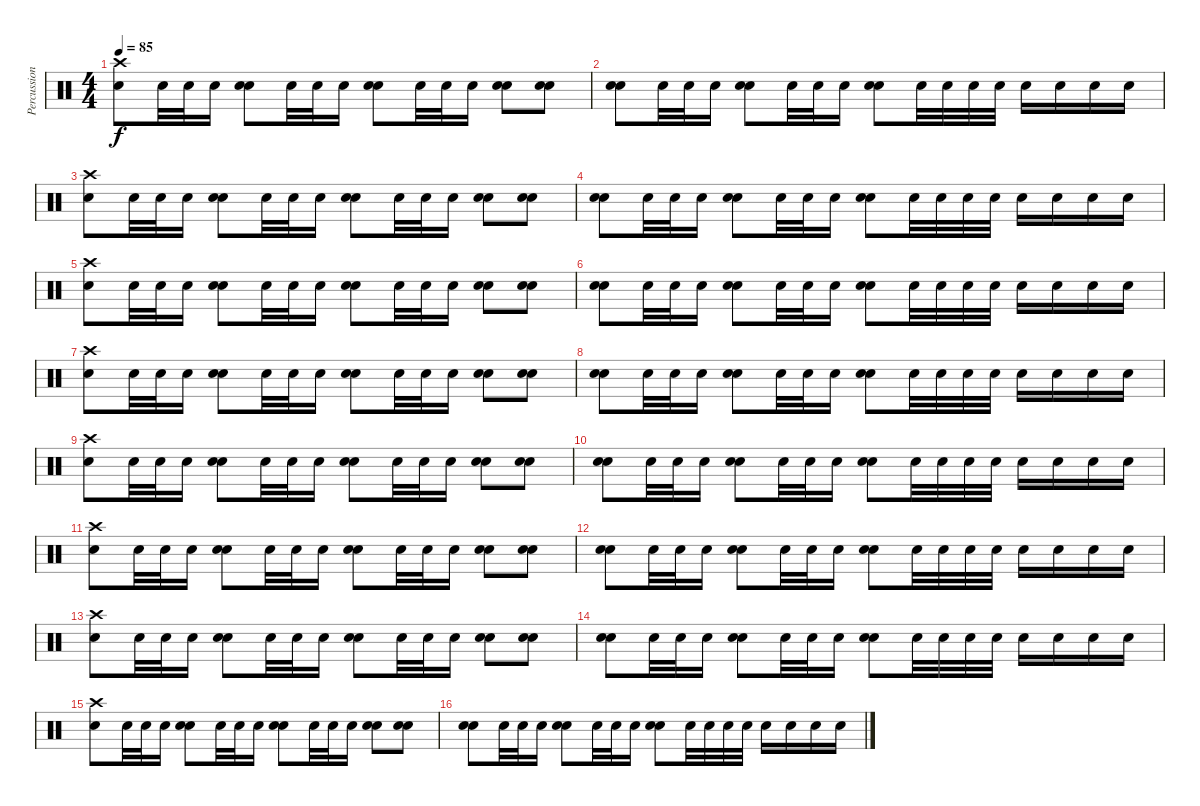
\track ("Percussion" "Percussion") {instrument percussion}
\staff {score}
\articulation defaults
\ts (4 4)
\tempo 85
\clef neutral
\ks c
("Crash high (hit)" "Electric Snare (hit)").8{dy f} "Electric Snare (hit)".32 "Electric Snare (hit)".32 "Electric Snare (hit)".16 ("Electric Snare (hit)" "Electric Snare (hit)").8 "Electric Snare (hit)".32 "Electric Snare (hit)".32 "Electric Snare (hit)".16 ("Electric Snare (hit)" "Electric Snare (hit)").8 "Electric Snare (hit)".32 "Electric Snare (hit)".32 "Electric Snare (hit)".16 ("Electric Snare (hit)" "Electric Snare (hit)").8 ("Electric Snare (hit)" "Electric Snare (hit)").8 |
("Electric Snare (hit)" "Electric Snare (hit)").8 "Electric Snare (hit)".32 "Electric Snare (hit)".32 "Electric Snare (hit)".16 ("Electric Snare (hit)" "Electric Snare (hit)").8 "Electric Snare (hit)".32 "Electric Snare (hit)".32 "Electric Snare (hit)".16 ("Electric Snare (hit)" "Electric Snare (hit)").8 "Electric Snare (hit)".32 "Electric Snare (hit)".32 "Electric Snare (hit)".32 "Electric Snare (hit)".32 "Electric Snare (hit)".16 "Electric Snare (hit)".16 "Electric Snare (hit)".16 "Electric Snare (hit)".16 |
("Crash high (hit)" "Electric Snare (hit)").8 "Electric Snare (hit)".32 "Electric Snare (hit)".32 "Electric Snare (hit)".16 ("Electric Snare (hit)" "Electric Snare (hit)").8 "Electric Snare (hit)".32 "Electric Snare (hit)".32 "Electric Snare (hit)".16 ("Electric Snare (hit)" "Electric Snare (hit)").8 "Electric Snare (hit)".32 "Electric Snare (hit)".32 "Electric Snare (hit)".16 ("Electric Snare (hit)" "Electric Snare (hit)").8 ("Electric Snare (hit)" "Electric Snare (hit)").8 |
("Electric Snare (hit)" "Electric Snare (hit)").8 "Electric Snare (hit)".32 "Electric Snare (hit)".32 "Electric Snare (hit)".16 ("Electric Snare (hit)" "Electric Snare (hit)").8 "Electric Snare (hit)".32 "Electric Snare (hit)".32 "Electric Snare (hit)".16 ("Electric Snare (hit)" "Electric Snare (hit)").8 "Electric Snare (hit)".32 "Electric Snare (hit)".32 "Electric Snare (hit)".32 "Electric Snare (hit)".32 "Electric Snare (hit)".16 "Electric Snare (hit)".16 "Electric Snare (hit)".16 "Electric Snare (hit)".16 |
("Crash high (hit)" "Electric Snare (hit)").8 "Electric Snare (hit)".32 "Electric Snare (hit)".32 "Electric Snare (hit)".16 ("Electric Snare (hit)" "Electric Snare (hit)").8 "Electric Snare (hit)".32 "Electric Snare (hit)".32 "Electric Snare (hit)".16 ("Electric Snare (hit)" "Electric Snare (hit)").8 "Electric Snare (hit)".32 "Electric Snare (hit)".32 "Electric Snare (hit)".16 ("Electric Snare (hit)" "Electric Snare (hit)").8 ("Electric Snare (hit)" "Electric Snare (hit)").8 |
("Electric Snare (hit)" "Electric Snare (hit)").8 "Electric Snare (hit)".32 "Electric Snare (hit)".32 "Electric Snare (hit)".16 ("Electric Snare (hit)" "Electric Snare (hit)").8 "Electric Snare (hit)".32 "Electric Snare (hit)".32 "Electric Snare (hit)".16 ("Electric Snare (hit)" "Electric Snare (hit)").8 "Electric Snare (hit)".32 "Electric Snare (hit)".32 "Electric Snare (hit)".32 "Electric Snare (hit)".32 "Electric Snare (hit)".16 "Electric Snare (hit)".16 "Electric Snare (hit)".16 "Electric Snare (hit)".16 |
("Crash high (hit)" "Electric Snare (hit)").8 "Electric Snare (hit)".32 "Electric Snare (hit)".32 "Electric Snare (hit)".16 ("Electric Snare (hit)" "Electric Snare (hit)").8 "Electric Snare (hit)".32 "Electric Snare (hit)".32 "Electric Snare (hit)".16 ("Electric Snare (hit)" "Electric Snare (hit)").8 "Electric Snare (hit)".32 "Electric Snare (hit)".32 "Electric Snare (hit)".16 ("Electric Snare (hit)" "Electric Snare (hit)").8 ("Electric Snare (hit)" "Electric Snare (hit)").8 |
("Electric Snare (hit)" "Electric Snare (hit)").8 "Electric Snare (hit)".32 "Electric Snare (hit)".32 "Electric Snare (hit)".16 ("Electric Snare (hit)" "Electric Snare (hit)").8 "Electric Snare (hit)".32 "Electric Snare (hit)".32 "Electric Snare (hit)".16 ("Electric Snare (hit)" "Electric Snare (hit)").8 "Electric Snare (hit)".32 "Electric Snare (hit)".32 "Electric Snare (hit)".32 "Electric Snare (hit)".32 "Electric Snare (hit)".16 "Electric Snare (hit)".16 "Electric Snare (hit)".16 "Electric Snare (hit)".16 |
("Crash high (hit)" "Electric Snare (hit)").8 "Electric Snare (hit)".32 "Electric Snare (hit)".32 "Electric Snare (hit)".16 ("Electric Snare (hit)" "Electric Snare (hit)").8 "Electric Snare (hit)".32 "Electric Snare (hit)".32 "Electric Snare (hit)".16 ("Electric Snare (hit)" "Electric Snare (hit)").8 "Electric Snare (hit)".32 "Electric Snare (hit)".32 "Electric Snare (hit)".16 ("Electric Snare (hit)" "Electric Snare (hit)").8 ("Electric Snare (hit)" "Electric Snare (hit)").8 |
("Electric Snare (hit)" "Electric Snare (hit)").8 "Electric Snare (hit)".32 "Electric Snare (hit)".32 "Electric Snare (hit)".16 ("Electric Snare (hit)" "Electric Snare (hit)").8 "Electric Snare (hit)".32 "Electric Snare (hit)".32 "Electric Snare (hit)".16 ("Electric Snare (hit)" "Electric Snare (hit)").8 "Electric Snare (hit)".32 "Electric Snare (hit)".32 "Electric Snare (hit)".32 "Electric Snare (hit)".32 "Electric Snare (hit)".16 "Electric Snare (hit)".16 "Electric Snare (hit)".16 "Electric Snare (hit)".16 |
("Crash high (hit)" "Electric Snare (hit)").8 "Electric Snare (hit)".32 "Electric Snare (hit)".32 "Electric Snare (hit)".16 ("Electric Snare (hit)" "Electric Snare (hit)").8 "Electric Snare (hit)".32 "Electric Snare (hit)".32 "Electric Snare (hit)".16 ("Electric Snare (hit)" "Electric Snare (hit)").8 "Electric Snare (hit)".32 "Electric Snare (hit)".32 "Electric Snare (hit)".16 ("Electric Snare (hit)" "Electric Snare (hit)").8 ("Electric Snare (hit)" "Electric Snare (hit)").8 |
("Electric Snare (hit)" "Electric Snare (hit)").8 "Electric Snare (hit)".32 "Electric Snare (hit)".32 "Electric Snare (hit)".16 ("Electric Snare (hit)" "Electric Snare (hit)").8 "Electric Snare (hit)".32 "Electric Snare (hit)".32 "Electric Snare (hit)".16 ("Electric Snare (hit)" "Electric Snare (hit)").8 "Electric Snare (hit)".32 "Electric Snare (hit)".32 "Electric Snare (hit)".32 "Electric Snare (hit)".32 "Electric Snare (hit)".16 "Electric Snare (hit)".16 "Electric Snare (hit)".16 "Electric Snare (hit)".16 |
("Crash high (hit)" "Electric Snare (hit)").8 "Electric Snare (hit)".32 "Electric Snare (hit)".32 "Electric Snare (hit)".16 ("Electric Snare (hit)" "Electric Snare (hit)").8 "Electric Snare (hit)".32 "Electric Snare (hit)".32 "Electric Snare (hit)".16 ("Electric Snare (hit)" "Electric Snare (hit)").8 "Electric Snare (hit)".32 "Electric Snare (hit)".32 "Electric Snare (hit)".16 ("Electric Snare (hit)" "Electric Snare (hit)").8 ("Electric Snare (hit)" "Electric Snare (hit)").8 |
("Electric Snare (hit)" "Electric Snare (hit)").8 "Electric Snare (hit)".32 "Electric Snare (hit)".32 "Electric Snare (hit)".16 ("Electric Snare (hit)" "Electric Snare (hit)").8 "Electric Snare (hit)".32 "Electric Snare (hit)".32 "Electric Snare (hit)".16 ("Electric Snare (hit)" "Electric Snare (hit)").8 "Electric Snare (hit)".32 "Electric Snare (hit)".32 "Electric Snare (hit)".32 "Electric Snare (hit)".32 "Electric Snare (hit)".16 "Electric Snare (hit)".16 "Electric Snare (hit)".16 "Electric Snare (hit)".16 |
("Crash high (hit)" "Electric Snare (hit)").8 "Electric Snare (hit)".32 "Electric Snare (hit)".32 "Electric Snare (hit)".16 ("Electric Snare (hit)" "Electric Snare (hit)").8 "Electric Snare (hit)".32 "Electric Snare (hit)".32 "Electric Snare (hit)".16 ("Electric Snare (hit)" "Electric Snare (hit)").8 "Electric Snare (hit)".32 "Electric Snare (hit)".32 "Electric Snare (hit)".16 ("Electric Snare (hit)" "Electric Snare (hit)").8 ("Electric Snare (hit)" "Electric Snare (hit)").8 |
("Electric Snare (hit)" "Electric Snare (hit)").8 "Electric Snare (hit)".32 "Electric Snare (hit)".32 "Electric Snare (hit)".16 ("Electric Snare (hit)" "Electric Snare (hit)").8 "Electric Snare (hit)".32 "Electric Snare (hit)".32 "Electric Snare (hit)".16 ("Electric Snare (hit)" "Electric Snare (hit)").8 "Electric Snare (hit)".32 "Electric Snare (hit)".32 "Electric Snare (hit)".32 "Electric Snare (hit)".32 "Electric Snare (hit)".16 "Electric Snare (hit)".16 "Electric Snare (hit)".16 "Electric Snare (hit)".16
